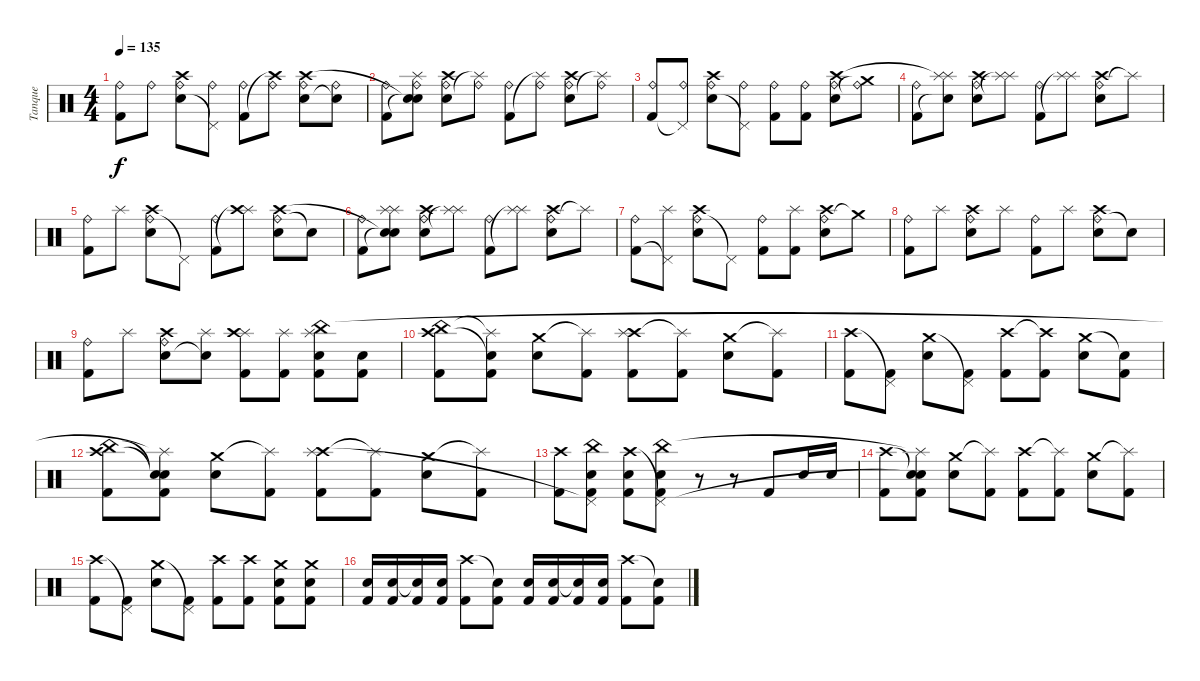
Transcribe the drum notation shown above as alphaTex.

\track ("Tanque" "Tanque") {instrument percussion}
\staff {score}
\articulation defaults
\ts (4 4)
\tempo 135
\clef neutral
\ks c
("Ride (bell)" "Kick (hit) 2").8{dy f} "Ride (bell)".8 ("Ride (bell)" "Snare (hit) 2" "Crash high (hit)").8 ("Ride (bell)" "Pedal Hi-Hat (hit)"{t}).8 ("Ride (bell)" "Kick (hit) 2").8 ("Ride (bell)" "Crash high (hit)"{t}).8 ("Ride (bell)" "Snare (hit) 2" "Crash high (hit)").8 ("Ride (bell)" "Snare (hit)"{t}).8 |
("Ride (bell)" "Kick (hit) 2").8 ("Ride (bell)" "Snare (hit)"{t} "Snare (hit)"{t} "Splash (hit)").8 ("Ride (bell)" "Snare (hit) 2" "Crash high (hit)").8 ("Ride (bell)" "Splash (hit)"{t}).8 ("Ride (bell)" "Kick (hit) 2").8 ("Ride (bell)" "Splash (hit)"{t}).8 ("Ride (bell)" "Snare (hit) 2" "Crash high (hit)").8 ("Ride (bell)" "Splash (hit)"{t}).8 |
("Ride (bell)" "Kick (hit) 2").8 ("Ride (bell)" "Pedal Hi-Hat (hit)"{t}).8 ("Ride (bell)" "Snare (hit) 2" "Crash high (hit)").8 ("Ride (bell)" "Pedal Hi-Hat (hit)"{t}).8 ("Ride (bell)" "Kick (hit) 2").8 ("Ride (bell)" "Kick (hit) 2").8 ("Ride (bell)" "Snare (hit) 2" "Crash high (hit)").8 ("Ride (bell)" "Crash medium (hit)"{t}).8 |
("Ride (bell)" "Kick (hit) 2").8 ("Splash (hit)" "Snare (hit)"{t} "Splash (hit)"{t}).8 ("Ride (bell)" "Snare (hit) 2" "Crash high (hit)").8 ("Splash (hit)" "Splash (hit)"{t}).8 ("Ride (bell)" "Kick (hit) 2").8 ("Splash (hit)" "Splash (hit)"{t}).8 ("Ride (bell)" "Snare (hit) 2" "Crash high (hit)").8 "Splash (hit)"{t}.8 |
("Ride (bell)" "Kick (hit) 2").8 "Splash (hit)".8 ("Ride (bell)" "Snare (hit) 2" "Crash high (hit)").8 "Pedal Hi-Hat (hit)"{t}.8 ("Ride (bell)" "Kick (hit) 2").8 ("Splash (hit)" "Crash high (hit)"{t}).8 ("Ride (bell)" "Snare (hit) 2" "Crash high (hit)").8 "Snare (hit)"{t}.8 |
("Ride (bell)" "Kick (hit) 2").8 ("Splash (hit)" "Snare (hit)"{t} "Snare (hit)"{t} "Splash (hit)").8 ("Ride (bell)" "Snare (hit) 2" "Crash high (hit)").8 ("Splash (hit)" "Splash (hit)"{t}).8 ("Ride (bell)" "Kick (hit) 2").8 ("Splash (hit)" "Splash (hit)"{t}).8 ("Ride (bell)" "Snare (hit) 2" "Crash high (hit)").8 "Splash (hit)"{t}.8 |
("Ride (bell)" "Kick (hit) 2").8 ("Splash (hit)" "Pedal Hi-Hat (hit)"{t}).8 ("Ride (bell)" "Snare (hit) 2" "Crash high (hit)").8 "Pedal Hi-Hat (hit)"{t}.8 ("Ride (bell)" "Kick (hit) 2").8 ("Splash (hit)" "Kick (hit) 2").8 ("Ride (bell)" "Snare (hit) 2" "Crash high (hit)").8 "Crash medium (hit)"{t}.8 |
("Ride (bell)" "Kick (hit) 2").8 "Splash (hit)".8 ("Ride (bell)" "Snare (hit) 2" "Crash high (hit)").8 "Splash (hit)".8 ("Ride (bell)" "Kick (hit) 2").8 "Splash (hit)".8 ("Ride (bell)" "Snare (hit) 2" "Crash high (hit)").8 "Snare (hit)"{t}.8 |
("Ride (bell)" "Kick (hit) 2").8 "Splash (hit)".8 ("Ride (bell)" "Snare (hit) 2" "Crash high (hit)").8 ("Splash (hit)" "Snare (hit)"{t}).8 ("Splash (hit)" "Kick (hit) 2" "Crash high (hit)").8 ("Splash (hit)" "Kick (hit) 2").8 ("Splash (hit)" "Kick (hit) 2" "Snare (hit) 2" "China (hit)").8 ("Kick (hit) 2" "Snare (hit) 2").8 |
("Kick (hit) 2" "Crash high (hit)" "China (hit)").8 ("Kick (hit) 2" "Snare (hit)"{t} "Splash (hit)"{t}).8 ("Snare (hit) 2" "Crash medium (hit)").8 ("Kick (hit) 2" "Splash (hit)"{t}).8 ("Kick (hit) 2" "Crash high (hit)" "Splash (hit)").8 ("Kick (hit) 2" "Splash (hit)"{t}).8 ("Snare (hit) 2" "Crash medium (hit)").8 ("Kick (hit) 2" "Splash (hit)"{t}).8 |
("Kick (hit) 2" "Crash high (hit)").8 ("Kick (hit) 2" "Pedal Hi-Hat (hit)"{t}).8 ("Snare (hit) 2" "Crash medium (hit)").8 ("Kick (hit) 2" "Pedal Hi-Hat (hit)"{t}).8 ("Kick (hit) 2" "Crash high (hit)").8 ("Kick (hit) 2" "Crash high (hit)"{t}).8 ("Snare (hit) 2" "Crash medium (hit)").8 ("Kick (hit) 2" "Snare (hit)"{t}).8 |
("Kick (hit) 2" "Crash high (hit)" "China (hit)").8 ("Kick (hit) 2" "Snare (hit)"{t} "Snare (hit)"{t} "Splash (hit)"{t}).8 ("Snare (hit) 2" "Crash medium (hit)").8 ("Kick (hit) 2" "Splash (hit)"{t}).8 ("Kick (hit) 2" "Crash high (hit)" "Splash (hit)").8 ("Kick (hit) 2" "Splash (hit)"{t}).8 ("Snare (hit) 2" "Crash medium (hit)").8 ("Kick (hit) 2" "Splash (hit)"{t}).8 |
("Kick (hit) 2" "Crash high (hit)").8 ("Kick (hit) 2" "Snare (hit) 2" "Pedal Hi-Hat (hit)"{t} "China (hit)").8 ("Kick (hit) 2" "Snare (hit) 2" "Crash high (hit)").8 ("Kick (hit) 2" "Snare (hit) 2" "Pedal Hi-Hat (hit)"{t} "China (hit)").8 r.8 r.8 "Kick (hit) 2".8 "Snare (hit) 2".16 "Snare (hit) 2".16 |
("Kick (hit) 2" "Crash high (hit)").8 ("Kick (hit) 2" "Snare (hit)"{t} "Snare (hit)"{t} "Splash (hit)"{t}).8 ("Snare (hit) 2" "Crash medium (hit)").8 ("Kick (hit) 2" "Splash (hit)"{t}).8 ("Kick (hit) 2" "Crash high (hit)").8 ("Kick (hit) 2" "Splash (hit)"{t}).8 ("Snare (hit) 2" "Crash medium (hit)").8 ("Kick (hit) 2" "Splash (hit)"{t}).8 |
("Kick (hit) 2" "Crash high (hit)").8 ("Kick (hit) 2" "Pedal Hi-Hat (hit)"{t}).8 ("Snare (hit) 2" "Crash medium (hit)").8 ("Kick (hit) 2" "Pedal Hi-Hat (hit)"{t}).8 ("Kick (hit) 2" "Crash high (hit)").8 ("Kick (hit) 2" "Crash high (hit)").8 ("Kick (hit) 2" "Snare (hit) 2" "Crash medium (hit)").8 ("Kick (hit) 2" "Snare (hit) 2" "Crash medium (hit)").8 |
("Kick (hit) 2" "Snare (hit) 2").16 ("Kick (hit) 2" "Snare (hit) 2").16 ("Kick (hit) 2" "Snare (hit) 2"{t}).16 ("Kick (hit) 2" "Snare (hit) 2").16 ("Kick (hit) 2" "Crash high (hit)").8 ("Kick (hit) 2" "Snare (hit)"{t}).8 ("Kick (hit) 2" "Snare (hit) 2").16 ("Kick (hit) 2" "Snare (hit) 2").16 ("Kick (hit) 2" "Snare (hit) 2"{t}).16 ("Kick (hit) 2" "Snare (hit) 2").16 ("Kick (hit) 2" "Crash high (hit)").8 ("Kick (hit) 2" "Snare (hit)"{t}).8
